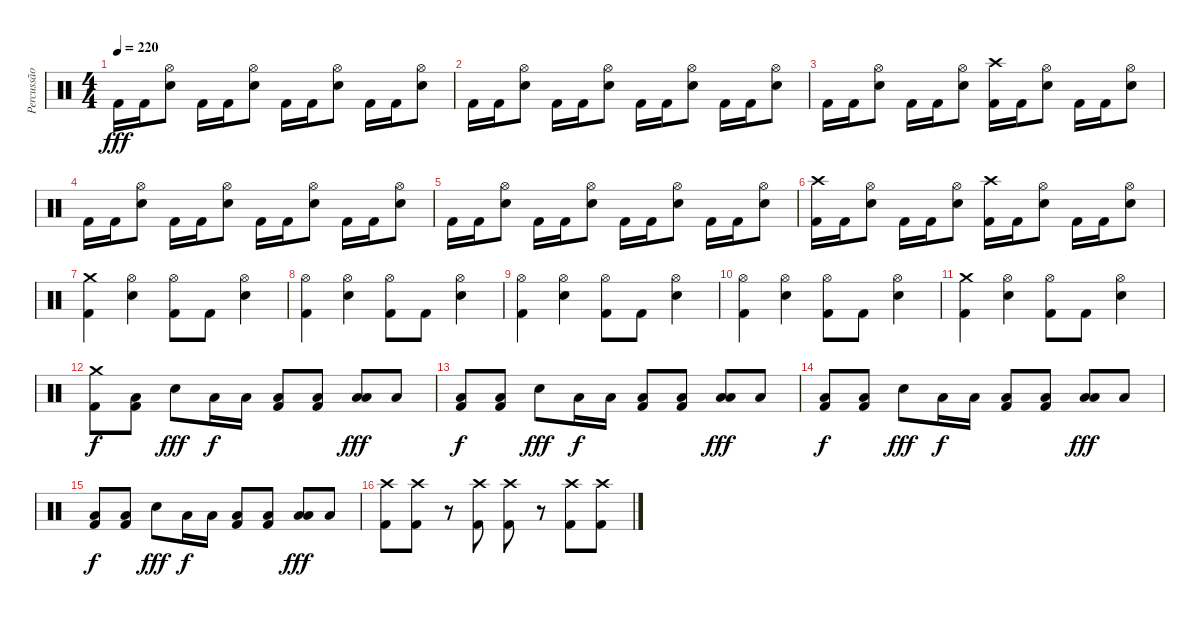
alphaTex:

\track ("Percussão" "Percussão") {instrument percussion}
\staff {score}
\articulation defaults
\ts (4 4)
\tempo 220
\clef neutral
\ks c "Kick (hit) 2".16{dy fff} "Kick (hit) 2".16
("Hi-Hat (open)" "Electric Snare (hit)").8 "Kick (hit) 2".16 "Kick (hit) 2".16 ("Hi-Hat (open)" "Electric Snare (hit)").8 "Kick (hit) 2".16 "Kick (hit) 2".16 ("Hi-Hat (open)" "Electric Snare (hit)").8 "Kick (hit) 2".16 "Kick (hit) 2".16 ("Hi-Hat (open)" "Electric Snare (hit)").8 |
"Kick (hit) 2".16 "Kick (hit) 2".16 ("Hi-Hat (open)" "Electric Snare (hit)").8 "Kick (hit) 2".16 "Kick (hit) 2".16 ("Hi-Hat (open)" "Electric Snare (hit)").8 "Kick (hit) 2".16 "Kick (hit) 2".16 ("Hi-Hat (open)" "Electric Snare (hit)").8 "Kick (hit) 2".16 "Kick (hit) 2".16 ("Hi-Hat (open)" "Electric Snare (hit)").8 |
"Kick (hit) 2".16 "Kick (hit) 2".16 ("Hi-Hat (open)" "Electric Snare (hit)").8 "Kick (hit) 2".16 "Kick (hit) 2".16 ("Hi-Hat (open)" "Electric Snare (hit)").8 ("Crash high (hit)" "Kick (hit) 2").16 "Kick (hit) 2".16 ("Hi-Hat (open)" "Electric Snare (hit)").8 "Kick (hit) 2".16 "Kick (hit) 2".16 ("Hi-Hat (open)" "Electric Snare (hit)").8 |
"Kick (hit) 2".16 "Kick (hit) 2".16 ("Hi-Hat (open)" "Electric Snare (hit)").8 "Kick (hit) 2".16 "Kick (hit) 2".16 ("Hi-Hat (open)" "Electric Snare (hit)").8 "Kick (hit) 2".16 "Kick (hit) 2".16 ("Hi-Hat (open)" "Electric Snare (hit)").8 "Kick (hit) 2".16 "Kick (hit) 2".16 ("Hi-Hat (open)" "Electric Snare (hit)").8 |
"Kick (hit) 2".16 "Kick (hit) 2".16 ("Hi-Hat (open)" "Electric Snare (hit)").8 "Kick (hit) 2".16 "Kick (hit) 2".16 ("Hi-Hat (open)" "Electric Snare (hit)").8 "Kick (hit) 2".16 "Kick (hit) 2".16 ("Hi-Hat (open)" "Electric Snare (hit)").8 "Kick (hit) 2".16 "Kick (hit) 2".16 ("Hi-Hat (open)" "Electric Snare (hit)").8 |
("Crash high (hit)" "Kick (hit) 2").16 "Kick (hit) 2".16 ("Hi-Hat (open)" "Electric Snare (hit)").8 "Kick (hit) 2".16 "Kick (hit) 2".16 ("Hi-Hat (open)" "Electric Snare (hit)").8 ("Crash high (hit)" "Kick (hit) 2").16 "Kick (hit) 2".16 ("Hi-Hat (open)" "Electric Snare (hit)").8 "Kick (hit) 2".16 "Kick (hit) 2".16 ("Hi-Hat (open)" "Electric Snare (hit)").8 |
("Crash medium (hit)" "Kick (hit) 2").4 ("Hi-Hat (open)" "Electric Snare (hit)").4 ("Hi-Hat (open)" "Kick (hit) 2").8 "Kick (hit) 2".8 ("Hi-Hat (open)" "Electric Snare (hit)").4 |
("Hi-Hat (open)" "Kick (hit) 2").4 ("Hi-Hat (open)" "Electric Snare (hit)").4 ("Hi-Hat (open)" "Kick (hit) 2").8 "Kick (hit) 2".8 ("Hi-Hat (open)" "Electric Snare (hit)").4 |
("Hi-Hat (open)" "Kick (hit) 2").4 ("Hi-Hat (open)" "Electric Snare (hit)").4 ("Hi-Hat (open)" "Kick (hit) 2").8 "Kick (hit) 2".8 ("Hi-Hat (open)" "Electric Snare (hit)").4 |
("Hi-Hat (open)" "Kick (hit) 2").4 ("Hi-Hat (open)" "Electric Snare (hit)").4 ("Hi-Hat (open)" "Kick (hit) 2").8 "Kick (hit) 2".8 ("Hi-Hat (open)" "Electric Snare (hit)").4 |
("Crash medium (hit)" "Kick (hit) 2").4 ("Hi-Hat (open)" "Electric Snare (hit)").4 ("Hi-Hat (open)" "Kick (hit) 2").8 "Kick (hit) 2".8 ("Hi-Hat (open)" "Electric Snare (hit)").4 |
("Crash medium (hit)" "Kick (hit) 2").8{dy f} ("Low Floor Tom (hit)" "Kick (hit) 2").8 "Electric Snare (hit)".8{dy fff} "Low Floor Tom (hit)".16{dy f} "Low Floor Tom (hit)".16 ("Low Floor Tom (hit)" "Kick (hit) 2").8 ("Low Floor Tom (hit)" "Kick (hit) 2").8 ("Low Floor Tom (hit)" "Low Tom (hit)").8{dy fff} "Low Floor Tom (hit)".8 |
("Low Floor Tom (hit)" "Kick (hit) 2").8{dy f} ("Low Floor Tom (hit)" "Kick (hit) 2").8 "Electric Snare (hit)".8{dy fff} "Low Floor Tom (hit)".16{dy f} "Low Floor Tom (hit)".16 ("Low Floor Tom (hit)" "Kick (hit) 2").8 ("Low Floor Tom (hit)" "Kick (hit) 2").8 ("Low Floor Tom (hit)" "Low Tom (hit)").8{dy fff} "Low Floor Tom (hit)".8 |
("Low Floor Tom (hit)" "Kick (hit) 2").8{dy f} ("Low Floor Tom (hit)" "Kick (hit) 2").8 "Electric Snare (hit)".8{dy fff} "Low Floor Tom (hit)".16{dy f} "Low Floor Tom (hit)".16 ("Low Floor Tom (hit)" "Kick (hit) 2").8 ("Low Floor Tom (hit)" "Kick (hit) 2").8 ("Low Floor Tom (hit)" "Low Tom (hit)").8{dy fff} "Low Floor Tom (hit)".8 |
("Low Floor Tom (hit)" "Kick (hit) 2").8{dy f} ("Low Floor Tom (hit)" "Kick (hit) 2").8 "Electric Snare (hit)".8{dy fff} "Low Floor Tom (hit)".16{dy f} "Low Floor Tom (hit)".16 ("Low Floor Tom (hit)" "Kick (hit) 2").8 ("Low Floor Tom (hit)" "Kick (hit) 2").8 ("Low Floor Tom (hit)" "Low Tom (hit)").8{dy fff} "Low Floor Tom (hit)".8 |
("Crash high (hit)" "Kick (hit) 2").8 ("Crash high (hit)" "Kick (hit) 2").8 r.8 ("Crash high (hit)" "Kick (hit) 2").8 ("Crash high (hit)" "Kick (hit) 2").8 r.8 ("Crash high (hit)" "Kick (hit) 2").8 ("Crash high (hit)" "Kick (hit) 2").8
